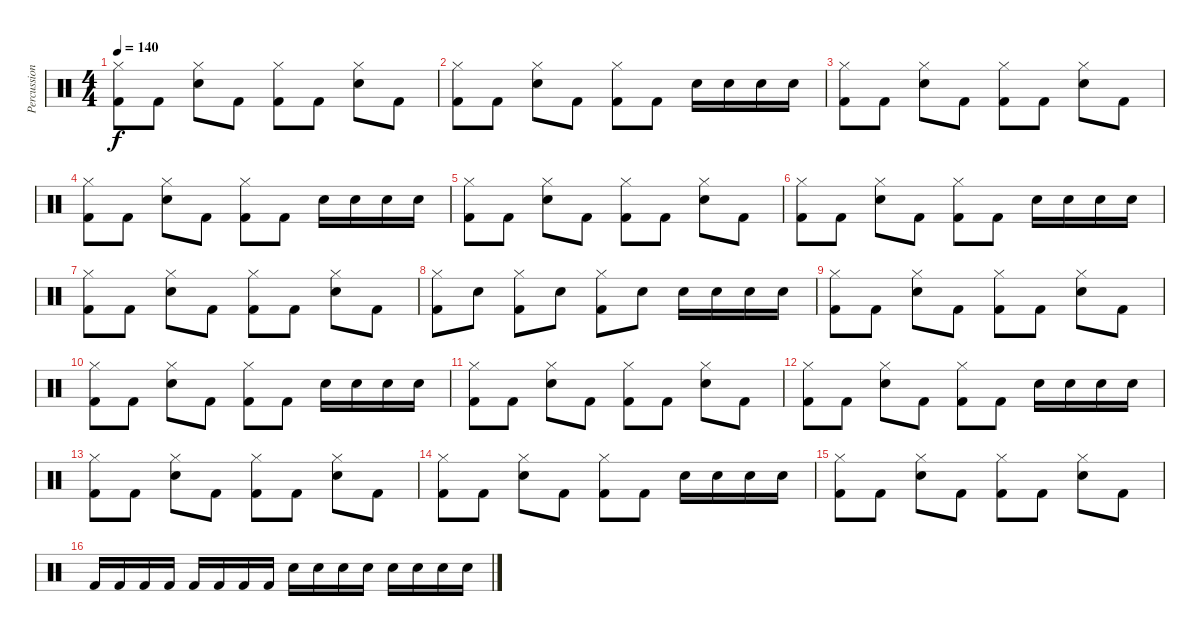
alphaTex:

\track ("Percussion" "Percussion") {instrument percussion}
\staff {score}
\articulation defaults
\ts (4 4)
\tempo 140
\clef neutral
\ks c
("Hi-Hat (closed)" "Kick (hit) 2").8{dy f} "Kick (hit) 2".8 ("Hi-Hat (closed)" "Electric Snare (hit)").8 "Kick (hit) 2".8 ("Hi-Hat (closed)" "Kick (hit) 2").8 "Kick (hit) 2".8 ("Hi-Hat (closed)" "Electric Snare (hit)").8 "Kick (hit) 2".8 |
("Hi-Hat (closed)" "Kick (hit) 2").8 "Kick (hit) 2".8 ("Hi-Hat (closed)" "Electric Snare (hit)").8 "Kick (hit) 2".8 ("Hi-Hat (closed)" "Kick (hit) 2").8 "Kick (hit) 2".8 "Electric Snare (hit)".16 "Electric Snare (hit)".16 "Electric Snare (hit)".16 "Electric Snare (hit)".16 |
("Hi-Hat (closed)" "Kick (hit) 2").8 "Kick (hit) 2".8 ("Hi-Hat (closed)" "Electric Snare (hit)").8 "Kick (hit) 2".8 ("Hi-Hat (closed)" "Kick (hit) 2").8 "Kick (hit) 2".8 ("Hi-Hat (closed)" "Electric Snare (hit)").8 "Kick (hit) 2".8 |
("Hi-Hat (closed)" "Kick (hit) 2").8 "Kick (hit) 2".8 ("Hi-Hat (closed)" "Electric Snare (hit)").8 "Kick (hit) 2".8 ("Hi-Hat (closed)" "Kick (hit) 2").8 "Kick (hit) 2".8 "Electric Snare (hit)".16 "Electric Snare (hit)".16 "Electric Snare (hit)".16 "Electric Snare (hit)".16 |
("Hi-Hat (closed)" "Kick (hit) 2").8 "Kick (hit) 2".8 ("Hi-Hat (closed)" "Electric Snare (hit)").8 "Kick (hit) 2".8 ("Hi-Hat (closed)" "Kick (hit) 2").8 "Kick (hit) 2".8 ("Hi-Hat (closed)" "Electric Snare (hit)").8 "Kick (hit) 2".8 |
("Hi-Hat (closed)" "Kick (hit) 2").8 "Kick (hit) 2".8 ("Hi-Hat (closed)" "Electric Snare (hit)").8 "Kick (hit) 2".8 ("Hi-Hat (closed)" "Kick (hit) 2").8 "Kick (hit) 2".8 "Electric Snare (hit)".16 "Electric Snare (hit)".16 "Electric Snare (hit)".16 "Electric Snare (hit)".16 |
("Hi-Hat (closed)" "Kick (hit) 2").8 "Kick (hit) 2".8 ("Hi-Hat (closed)" "Electric Snare (hit)").8 "Kick (hit) 2".8 ("Hi-Hat (closed)" "Kick (hit) 2").8 "Kick (hit) 2".8 ("Hi-Hat (closed)" "Electric Snare (hit)").8 "Kick (hit) 2".8 |
("Hi-Hat (closed)" "Kick (hit) 2").8 "Electric Snare (hit)".8 ("Hi-Hat (closed)" "Kick (hit) 2").8 "Electric Snare (hit)".8 ("Hi-Hat (closed)" "Kick (hit) 2").8 "Electric Snare (hit)".8 "Electric Snare (hit)".16 "Electric Snare (hit)".16 "Electric Snare (hit)".16 "Electric Snare (hit)".16 |
("Hi-Hat (closed)" "Kick (hit) 2").8 "Kick (hit) 2".8 ("Hi-Hat (closed)" "Electric Snare (hit)").8 "Kick (hit) 2".8 ("Hi-Hat (closed)" "Kick (hit) 2").8 "Kick (hit) 2".8 ("Hi-Hat (closed)" "Electric Snare (hit)").8 "Kick (hit) 2".8 |
("Hi-Hat (closed)" "Kick (hit) 2").8 "Kick (hit) 2".8 ("Hi-Hat (closed)" "Electric Snare (hit)").8 "Kick (hit) 2".8 ("Hi-Hat (closed)" "Kick (hit) 2").8 "Kick (hit) 2".8 "Electric Snare (hit)".16 "Electric Snare (hit)".16 "Electric Snare (hit)".16 "Electric Snare (hit)".16 |
("Hi-Hat (closed)" "Kick (hit) 2").8 "Kick (hit) 2".8 ("Hi-Hat (closed)" "Electric Snare (hit)").8 "Kick (hit) 2".8 ("Hi-Hat (closed)" "Kick (hit) 2").8 "Kick (hit) 2".8 ("Hi-Hat (closed)" "Electric Snare (hit)").8 "Kick (hit) 2".8 |
("Hi-Hat (closed)" "Kick (hit) 2").8 "Kick (hit) 2".8 ("Hi-Hat (closed)" "Electric Snare (hit)").8 "Kick (hit) 2".8 ("Hi-Hat (closed)" "Kick (hit) 2").8 "Kick (hit) 2".8 "Electric Snare (hit)".16 "Electric Snare (hit)".16 "Electric Snare (hit)".16 "Electric Snare (hit)".16 |
("Hi-Hat (closed)" "Kick (hit) 2").8 "Kick (hit) 2".8 ("Hi-Hat (closed)" "Electric Snare (hit)").8 "Kick (hit) 2".8 ("Hi-Hat (closed)" "Kick (hit) 2").8 "Kick (hit) 2".8 ("Hi-Hat (closed)" "Electric Snare (hit)").8 "Kick (hit) 2".8 |
("Hi-Hat (closed)" "Kick (hit) 2").8 "Kick (hit) 2".8 ("Hi-Hat (closed)" "Electric Snare (hit)").8 "Kick (hit) 2".8 ("Hi-Hat (closed)" "Kick (hit) 2").8 "Kick (hit) 2".8 "Electric Snare (hit)".16 "Electric Snare (hit)".16 "Electric Snare (hit)".16 "Electric Snare (hit)".16 |
("Hi-Hat (closed)" "Kick (hit) 2").8 "Kick (hit) 2".8 ("Hi-Hat (closed)" "Electric Snare (hit)").8 "Kick (hit) 2".8 ("Hi-Hat (closed)" "Kick (hit) 2").8 "Kick (hit) 2".8 ("Hi-Hat (closed)" "Electric Snare (hit)").8 "Kick (hit) 2".8 |
"Kick (hit) 2".16 "Kick (hit) 2".16 "Kick (hit) 2".16 "Kick (hit) 2".16 "Kick (hit) 2".16 "Kick (hit) 2".16 "Kick (hit) 2".16 "Kick (hit) 2".16 "Electric Snare (hit)".16 "Electric Snare (hit)".16 "Electric Snare (hit)".16 "Electric Snare (hit)".16 "Electric Snare (hit)".16 "Electric Snare (hit)".16 "Electric Snare (hit)".16 "Electric Snare (hit)".16
